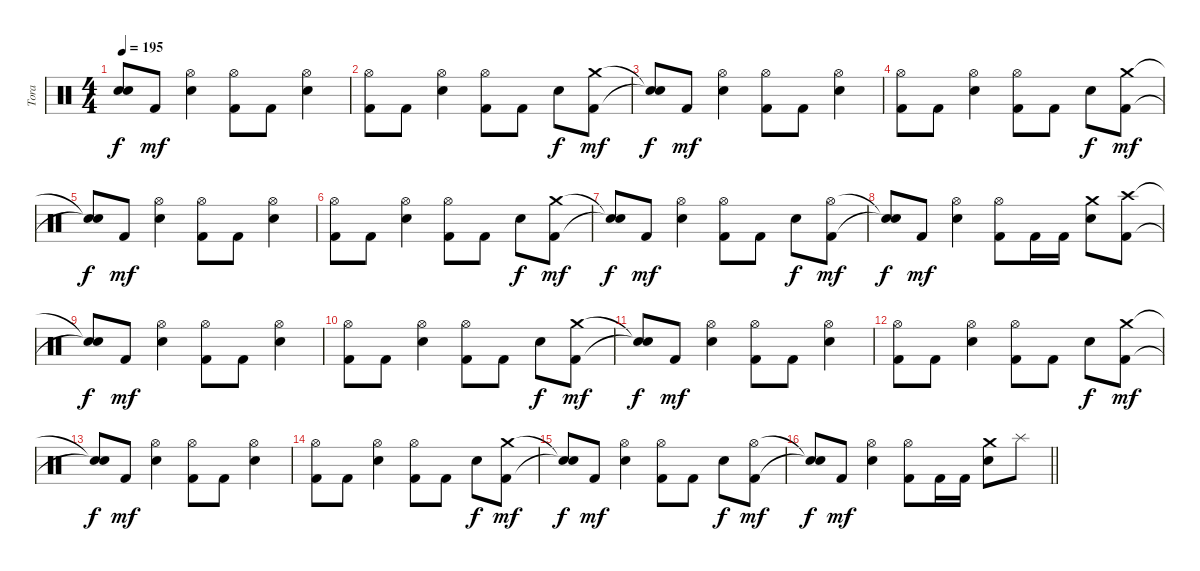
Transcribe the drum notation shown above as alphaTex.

\track ("Tora" "Tora") {instrument percussion}
\staff {score}
\articulation defaults
\ts (4 4)
\tempo 195
\clef neutral
\ks c
("Snare (hit)"{t} "Snare (hit)"{t}).8{dy f} "Kick (hit) 2".8{dy mf} ("Hi-Hat (open)" "Electric Snare (hit)").4 ("Hi-Hat (open)" "Kick (hit) 2").8 "Kick (hit) 2".8 ("Hi-Hat (open)" "Electric Snare (hit)").4 |
("Hi-Hat (open)" "Kick (hit) 2").8 "Kick (hit) 2".8 ("Hi-Hat (open)" "Electric Snare (hit)").4 ("Hi-Hat (open)" "Kick (hit) 2").8 "Kick (hit) 2".8 "Electric Snare (hit)".8{dy f} ("Crash medium (hit)" "Kick (hit) 2").8{dy mf} |
("Snare (hit)"{t} "Snare (hit)"{t}).8{dy f} "Kick (hit) 2".8{dy mf} ("Hi-Hat (open)" "Electric Snare (hit)").4 ("Hi-Hat (open)" "Kick (hit) 2").8 "Kick (hit) 2".8 ("Hi-Hat (open)" "Electric Snare (hit)").4 |
("Hi-Hat (open)" "Kick (hit) 2").8 "Kick (hit) 2".8 ("Hi-Hat (open)" "Electric Snare (hit)").4 ("Hi-Hat (open)" "Kick (hit) 2").8 "Kick (hit) 2".8 "Electric Snare (hit)".8{dy f} ("Crash medium (hit)" "Kick (hit) 2").8{dy mf} |
("Snare (hit)"{t} "Snare (hit)"{t}).8{dy f} "Kick (hit) 2".8{dy mf} ("Hi-Hat (open)" "Electric Snare (hit)").4 ("Hi-Hat (open)" "Kick (hit) 2").8 "Kick (hit) 2".8 ("Hi-Hat (open)" "Electric Snare (hit)").4 |
("Hi-Hat (open)" "Kick (hit) 2").8 "Kick (hit) 2".8 ("Hi-Hat (open)" "Electric Snare (hit)").4 ("Hi-Hat (open)" "Kick (hit) 2").8 "Kick (hit) 2".8 "Electric Snare (hit)".8{dy f} ("Crash medium (hit)" "Kick (hit) 2").8{dy mf} |
("Snare (hit)"{t} "Snare (hit)"{t}).8{dy f} "Kick (hit) 2".8{dy mf} ("Hi-Hat (open)" "Electric Snare (hit)").4 ("Hi-Hat (open)" "Kick (hit) 2").8 "Kick (hit) 2".8 "Electric Snare (hit)".8{dy f} ("Hi-Hat (open)" "Kick (hit) 2").8{dy mf} |
("Snare (hit)"{t} "Snare (hit)"{t}).8{dy f} "Kick (hit) 2".8{dy mf} ("Hi-Hat (open)" "Electric Snare (hit)").4 ("Hi-Hat (open)" "Kick (hit) 2").8 "Kick (hit) 2".16 "Kick (hit) 2".16 ("Crash medium (hit)" "Electric Snare (hit)").8 ("Crash high (hit)" "Kick (hit) 2").8 |
("Snare (hit)"{t} "Snare (hit)"{t}).8{dy f} "Kick (hit) 2".8{dy mf} ("Hi-Hat (open)" "Electric Snare (hit)").4 ("Hi-Hat (open)" "Kick (hit) 2").8 "Kick (hit) 2".8 ("Hi-Hat (open)" "Electric Snare (hit)").4 |
("Hi-Hat (open)" "Kick (hit) 2").8 "Kick (hit) 2".8 ("Hi-Hat (open)" "Electric Snare (hit)").4 ("Hi-Hat (open)" "Kick (hit) 2").8 "Kick (hit) 2".8 "Electric Snare (hit)".8{dy f} ("Crash medium (hit)" "Kick (hit) 2").8{dy mf} |
("Snare (hit)"{t} "Snare (hit)"{t}).8{dy f} "Kick (hit) 2".8{dy mf} ("Hi-Hat (open)" "Electric Snare (hit)").4 ("Hi-Hat (open)" "Kick (hit) 2").8 "Kick (hit) 2".8 ("Hi-Hat (open)" "Electric Snare (hit)").4 |
("Hi-Hat (open)" "Kick (hit) 2").8 "Kick (hit) 2".8 ("Hi-Hat (open)" "Electric Snare (hit)").4 ("Hi-Hat (open)" "Kick (hit) 2").8 "Kick (hit) 2".8 "Electric Snare (hit)".8{dy f} ("Crash medium (hit)" "Kick (hit) 2").8{dy mf} |
("Snare (hit)"{t} "Snare (hit)"{t}).8{dy f} "Kick (hit) 2".8{dy mf} ("Hi-Hat (open)" "Electric Snare (hit)").4 ("Hi-Hat (open)" "Kick (hit) 2").8 "Kick (hit) 2".8 ("Hi-Hat (open)" "Electric Snare (hit)").4 |
("Hi-Hat (open)" "Kick (hit) 2").8 "Kick (hit) 2".8 ("Hi-Hat (open)" "Electric Snare (hit)").4 ("Hi-Hat (open)" "Kick (hit) 2").8 "Kick (hit) 2".8 "Electric Snare (hit)".8{dy f} ("Crash medium (hit)" "Kick (hit) 2").8{dy mf} |
("Snare (hit)"{t} "Snare (hit)"{t}).8{dy f} "Kick (hit) 2".8{dy mf} ("Hi-Hat (open)" "Electric Snare (hit)").4 ("Hi-Hat (open)" "Kick (hit) 2").8 "Kick (hit) 2".8 "Electric Snare (hit)".8{dy f} ("Hi-Hat (open)" "Kick (hit) 2").8{dy mf} |
\barLineRight lightlight
("Snare (hit)"{t} "Snare (hit)"{t}).8{dy f} "Kick (hit) 2".8{dy mf} ("Hi-Hat (open)" "Electric Snare (hit)").4 ("Hi-Hat (open)" "Kick (hit) 2").8 "Kick (hit) 2".16 "Kick (hit) 2".16 ("Crash medium (hit)" "Electric Snare (hit)").8 "Splash (hit)".8
